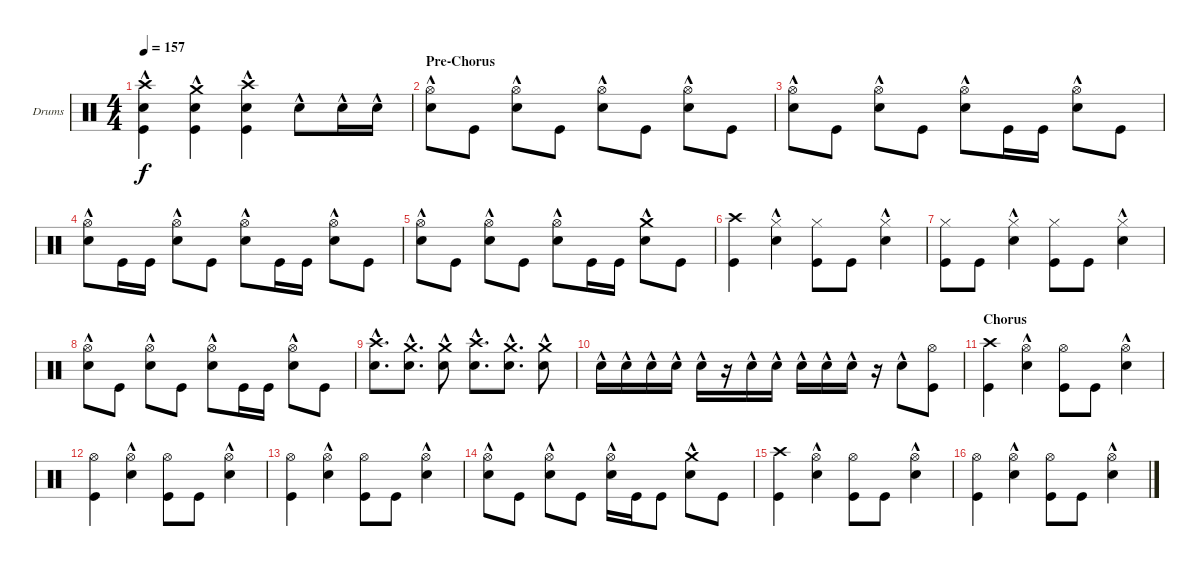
\defaultSystemsLayout 4
\bracketExtendMode groupsimilarinstruments
\firstSystemTrackNameOrientation horizontal
\otherSystemsTrackNameOrientation horizontal
\track ("Drumkit - Natsu" "Drums") {instrument percussion}
\staff {score}
\articulation defaults
\ts (4 4)
\tempo 157
\clef neutral
\ks c
("Snare (hit) 2"{hac} "Kick (hit)" "Crash high (hit)").4{dy f} ("Kick (hit)" "Snare (hit) 2"{hac} "Crash medium (hit)"{hac}).4 ("Snare (hit) 2"{hac} "Kick (hit)" "Crash high (hit)").4 "Snare (hit) 2"{hac}.8 "Snare (hit) 2"{hac}.16 "Snare (hit) 2"{hac}.16 |
\section ("" "Pre-Chorus")
("Snare (hit) 2"{hac} "Hi-Hat (open)").8 "Kick (hit)".8 ("Snare (hit) 2"{hac} "Hi-Hat (open)").8 "Kick (hit)".8 ("Snare (hit) 2"{hac} "Hi-Hat (open)").8 "Kick (hit)".8 ("Snare (hit) 2"{hac} "Hi-Hat (open)").8 "Kick (hit)".8 |
("Snare (hit) 2"{hac} "Hi-Hat (open)").8 "Kick (hit)".8 ("Snare (hit) 2"{hac} "Hi-Hat (open)").8 "Kick (hit)".8 ("Snare (hit) 2"{hac} "Hi-Hat (open)").8 "Kick (hit)".16 "Kick (hit)".16 ("Snare (hit) 2"{hac} "Hi-Hat (open)").8 "Kick (hit)".8 |
("Snare (hit) 2"{hac} "Hi-Hat (open)").8 "Kick (hit)".16 "Kick (hit)".16 ("Snare (hit) 2"{hac} "Hi-Hat (open)").8 "Kick (hit)".8 ("Snare (hit) 2"{hac} "Hi-Hat (open)").8 "Kick (hit)".16 "Kick (hit)".16 ("Snare (hit) 2"{hac} "Hi-Hat (open)").8 "Kick (hit)".8 |
("Snare (hit) 2"{hac} "Hi-Hat (open)").8 "Kick (hit)".8 ("Snare (hit) 2"{hac} "Hi-Hat (open)").8 "Kick (hit)".8 ("Snare (hit) 2"{hac} "Hi-Hat (open)").8 "Kick (hit)".16 "Kick (hit)".16 ("Snare (hit) 2"{hac} "Crash medium (hit)"{hac}).8 "Kick (hit)".8 |
("Crash high (hit)" "Kick (hit)").4 ("Snare (hit) 2"{hac} "Hi-Hat (closed)").4 ("Kick (hit)" "Hi-Hat (closed)").8 "Kick (hit)".8 ("Snare (hit) 2"{hac} "Hi-Hat (closed)").4 |
("Kick (hit)" "Hi-Hat (closed)").8 "Kick (hit)".8 ("Snare (hit) 2"{hac} "Hi-Hat (closed)").4 ("Kick (hit)" "Hi-Hat (closed)").8 "Kick (hit)".8 ("Snare (hit) 2"{hac} "Hi-Hat (closed)").4 |
("Snare (hit) 2"{hac} "Hi-Hat (open)").8 "Kick (hit)".8 ("Snare (hit) 2"{hac} "Hi-Hat (open)").8 "Kick (hit)".8 ("Snare (hit) 2"{hac} "Hi-Hat (open)").8 "Kick (hit)".16 "Kick (hit)".16 ("Snare (hit) 2"{hac} "Hi-Hat (open)").8 "Kick (hit)".8 |
("Crash high (hit)" "Snare (hit) 2"{hac}).8{d} ("Crash medium (hit)"{hac} "Snare (hit) 2"{hac}).8{d} ("Crash medium (hit)"{hac} "Snare (hit) 2"{hac}).8 ("Crash high (hit)" "Snare (hit) 2"{hac}).8{d} ("Crash medium (hit)"{hac} "Snare (hit) 2"{hac}).8{d} ("Crash medium (hit)"{hac} "Snare (hit) 2"{hac}).8 |
"Snare (hit) 2"{hac}.16 "Snare (hit) 2"{hac}.16 "Snare (hit) 2"{hac}.16 "Snare (hit) 2"{hac}.16 "Snare (hit) 2"{hac}.16 r.16 "Snare (hit) 2"{hac}.16 "Snare (hit) 2"{hac}.16 "Snare (hit) 2"{hac}.16 "Snare (hit) 2"{hac}.16 "Snare (hit) 2"{hac}.16 r.16 "Snare (hit) 2"{hac}.8 ("Kick (hit)" "Hi-Hat (open)").8 |
\section ("" "Chorus")
("Crash high (hit)" "Kick (hit)").4 ("Snare (hit) 2"{hac} "Hi-Hat (open)").4 ("Kick (hit)" "Hi-Hat (open)").8 "Kick (hit)".8 ("Snare (hit) 2"{hac} "Hi-Hat (open)").4 |
("Kick (hit)" "Hi-Hat (open)").4 ("Snare (hit) 2"{hac} "Hi-Hat (open)").4 ("Kick (hit)" "Hi-Hat (open)").8 "Kick (hit)".8 ("Snare (hit) 2"{hac} "Hi-Hat (open)").4 |
("Kick (hit)" "Hi-Hat (open)").4 ("Snare (hit) 2"{hac} "Hi-Hat (open)").4 ("Kick (hit)" "Hi-Hat (open)").8 "Kick (hit)".8 ("Snare (hit) 2"{hac} "Hi-Hat (open)").4 |
("Snare (hit) 2"{hac} "Hi-Hat (open)").8 "Kick (hit)".8 ("Snare (hit) 2"{hac} "Hi-Hat (open)").8 "Kick (hit)".8 ("Snare (hit) 2"{hac} "Hi-Hat (open)").16 "Kick (hit)".16 "Kick (hit)".8 ("Snare (hit) 2"{hac} "Crash medium (hit)"{hac}).8 "Kick (hit)".8 |
("Crash high (hit)" "Kick (hit)").4 ("Snare (hit) 2"{hac} "Hi-Hat (open)").4 ("Kick (hit)" "Hi-Hat (open)").8 "Kick (hit)".8 ("Snare (hit) 2"{hac} "Hi-Hat (open)").4 |
("Kick (hit)" "Hi-Hat (open)").4 ("Snare (hit) 2"{hac} "Hi-Hat (open)").4 ("Kick (hit)" "Hi-Hat (open)").8 "Kick (hit)".8 ("Snare (hit) 2"{hac} "Hi-Hat (open)").4
